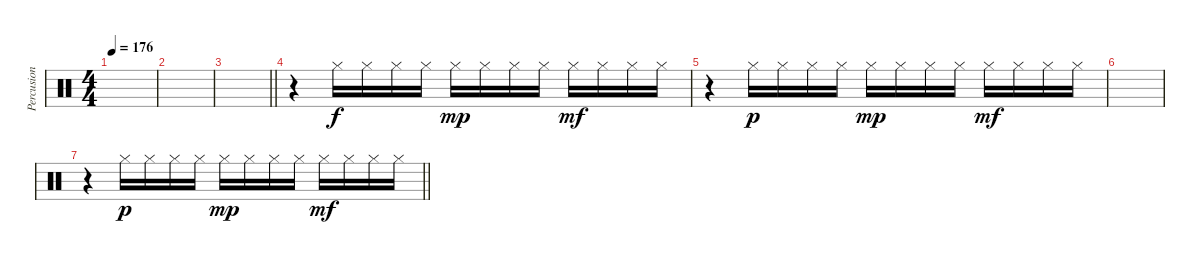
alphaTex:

\track ("Percusion" "Percusion") {instrument percussion}
\staff {score}
\articulation defaults
\ts (4 4)
\tempo 176
\clef neutral
\ks c
|
|
\barLineRight lightlight
|
r.4 "Hi-Hat (closed)".16 "Hi-Hat (closed)".16 "Hi-Hat (closed)".16 "Hi-Hat (closed)".16 "Hi-Hat (closed)".16{dy mp} "Hi-Hat (closed)".16 "Hi-Hat (closed)".16 "Hi-Hat (closed)".16 "Hi-Hat (closed)".16{dy mf} "Hi-Hat (closed)".16 "Hi-Hat (closed)".16 "Hi-Hat (closed)".16 |
r.4 "Hi-Hat (closed)".16{dy p} "Hi-Hat (closed)".16 "Hi-Hat (closed)".16 "Hi-Hat (closed)".16 "Hi-Hat (closed)".16{dy mp} "Hi-Hat (closed)".16 "Hi-Hat (closed)".16 "Hi-Hat (closed)".16 "Hi-Hat (closed)".16{dy mf} "Hi-Hat (closed)".16 "Hi-Hat (closed)".16 "Hi-Hat (closed)".16 |
|
\barLineRight lightlight
r.4 "Hi-Hat (closed)".16{dy p} "Hi-Hat (closed)".16 "Hi-Hat (closed)".16 "Hi-Hat (closed)".16 "Hi-Hat (closed)".16{dy mp} "Hi-Hat (closed)".16 "Hi-Hat (closed)".16 "Hi-Hat (closed)".16 "Hi-Hat (closed)".16{dy mf} "Hi-Hat (closed)".16 "Hi-Hat (closed)".16 "Hi-Hat (closed)".16
